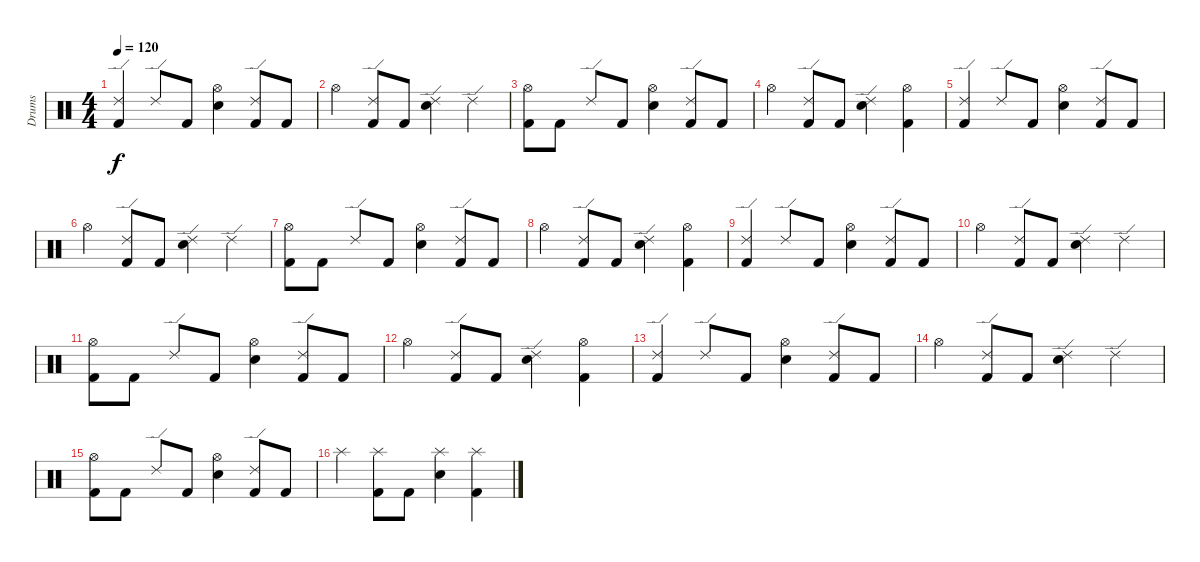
\track ("Drums" "Drums") {instrument percussion}
\staff {score}
\articulation defaults
\ts (4 4)
\tempo 120
\clef neutral
\ks c
("Ride (edge) 2" "Kick (hit) 2").4{dy f} "Ride (edge) 2".8 "Kick (hit) 2".8 ("Hi-Hat (open)" "Snare (hit) 2").4 ("Ride (edge) 2" "Kick (hit) 2").8 "Kick (hit) 2".8 |
"Hi-Hat (open)".4 ("Ride (edge) 2" "Kick (hit) 2").8 "Kick (hit) 2".8 ("Ride (edge) 2" "Snare (hit) 2").4 "Ride (edge) 2".4 |
("Hi-Hat (open)" "Kick (hit) 2").8 "Kick (hit) 2".8 "Ride (edge) 2".8 "Kick (hit) 2".8 ("Hi-Hat (open)" "Snare (hit) 2").4 ("Ride (edge) 2" "Kick (hit) 2").8 "Kick (hit) 2".8 |
"Hi-Hat (open)".4 ("Ride (edge) 2" "Kick (hit) 2").8 "Kick (hit) 2".8 ("Ride (edge) 2" "Snare (hit) 2").4 ("Hi-Hat (open)" "Kick (hit) 2").4 |
("Ride (edge) 2" "Kick (hit) 2").4 "Ride (edge) 2".8 "Kick (hit) 2".8 ("Hi-Hat (open)" "Snare (hit) 2").4 ("Ride (edge) 2" "Kick (hit) 2").8 "Kick (hit) 2".8 |
"Hi-Hat (open)".4 ("Ride (edge) 2" "Kick (hit) 2").8 "Kick (hit) 2".8 ("Ride (edge) 2" "Snare (hit) 2").4 "Ride (edge) 2".4 |
("Hi-Hat (open)" "Kick (hit) 2").8 "Kick (hit) 2".8 "Ride (edge) 2".8 "Kick (hit) 2".8 ("Hi-Hat (open)" "Snare (hit) 2").4 ("Ride (edge) 2" "Kick (hit) 2").8 "Kick (hit) 2".8 |
"Hi-Hat (open)".4 ("Ride (edge) 2" "Kick (hit) 2").8 "Kick (hit) 2".8 ("Ride (edge) 2" "Snare (hit) 2").4 ("Hi-Hat (open)" "Kick (hit) 2").4 |
("Ride (edge) 2" "Kick (hit) 2").4 "Ride (edge) 2".8 "Kick (hit) 2".8 ("Hi-Hat (open)" "Snare (hit) 2").4 ("Ride (edge) 2" "Kick (hit) 2").8 "Kick (hit) 2".8 |
"Hi-Hat (open)".4 ("Ride (edge) 2" "Kick (hit) 2").8 "Kick (hit) 2".8 ("Ride (edge) 2" "Snare (hit) 2").4 "Ride (edge) 2".4 |
("Hi-Hat (open)" "Kick (hit) 2").8 "Kick (hit) 2".8 "Ride (edge) 2".8 "Kick (hit) 2".8 ("Hi-Hat (open)" "Snare (hit) 2").4 ("Ride (edge) 2" "Kick (hit) 2").8 "Kick (hit) 2".8 |
"Hi-Hat (open)".4 ("Ride (edge) 2" "Kick (hit) 2").8 "Kick (hit) 2".8 ("Ride (edge) 2" "Snare (hit) 2").4 ("Hi-Hat (open)" "Kick (hit) 2").4 |
("Ride (edge) 2" "Kick (hit) 2").4 "Ride (edge) 2".8 "Kick (hit) 2".8 ("Hi-Hat (open)" "Snare (hit) 2").4 ("Ride (edge) 2" "Kick (hit) 2").8 "Kick (hit) 2".8 |
"Hi-Hat (open)".4 ("Ride (edge) 2" "Kick (hit) 2").8 "Kick (hit) 2".8 ("Ride (edge) 2" "Snare (hit) 2").4 "Ride (edge) 2".4 |
("Hi-Hat (open)" "Kick (hit) 2").8 "Kick (hit) 2".8 "Ride (edge) 2".8 "Kick (hit) 2".8 ("Hi-Hat (open)" "Snare (hit) 2").4 ("Ride (edge) 2" "Kick (hit) 2").8 "Kick (hit) 2".8 |
"Splash (hit)".4 ("Splash (hit)" "Kick (hit) 2").8 "Kick (hit) 2".8 ("Splash (hit)" "Snare (hit) 2").4 ("Splash (hit)" "Kick (hit) 2").4
